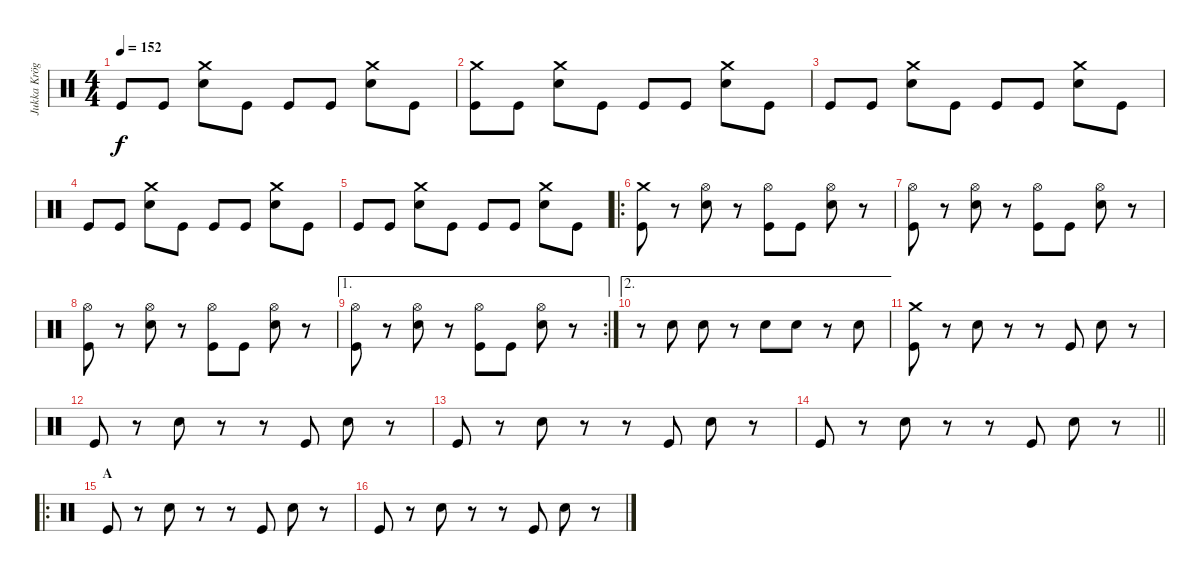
\track ("Jukka Kröger" "Jukka Krög") {instrument percussion}
\staff {score}
\articulation defaults
\ts (4 4)
\tempo 152
\clef neutral
\ks aminor "Kick (hit)".8{dy f} "Kick (hit)".8
("Crash medium (hit)" "Snare (hit) 2").8 "Kick (hit)".8 "Kick (hit)".8 "Kick (hit)".8 ("Crash medium (hit)" "Snare (hit) 2").8 "Kick (hit)".8 |
("Crash medium (hit)" "Kick (hit)").8 "Kick (hit)".8 ("Crash medium (hit)" "Snare (hit) 2").8 "Kick (hit)".8 "Kick (hit)".8 "Kick (hit)".8 ("Crash medium (hit)" "Snare (hit) 2").8 "Kick (hit)".8 |
"Kick (hit)".8 "Kick (hit)".8 ("Crash medium (hit)" "Snare (hit) 2").8 "Kick (hit)".8 "Kick (hit)".8 "Kick (hit)".8 ("Crash medium (hit)" "Snare (hit) 2").8 "Kick (hit)".8 |
"Kick (hit)".8 "Kick (hit)".8 ("Crash medium (hit)" "Snare (hit) 2").8 "Kick (hit)".8 "Kick (hit)".8 "Kick (hit)".8 ("Crash medium (hit)" "Snare (hit) 2").8 "Kick (hit)".8 |
"Kick (hit)".8 "Kick (hit)".8 ("Crash medium (hit)" "Snare (hit) 2").8 "Kick (hit)".8 "Kick (hit)".8 "Kick (hit)".8 ("Crash medium (hit)" "Snare (hit) 2").8 "Kick (hit)".8 |
\ro
("Crash medium (hit)" "Kick (hit)").8 r.8 ("Hi-Hat (open)" "Snare (hit) 2").8 r.8 ("Hi-Hat (open)" "Kick (hit)").8 "Kick (hit)".8 ("Hi-Hat (open)" "Snare (hit) 2").8 r.8 |
("Hi-Hat (open)" "Kick (hit)").8 r.8 ("Hi-Hat (open)" "Snare (hit) 2").8 r.8 ("Hi-Hat (open)" "Kick (hit)").8 "Kick (hit)".8 ("Hi-Hat (open)" "Snare (hit) 2").8 r.8 |
("Hi-Hat (open)" "Kick (hit)").8 r.8 ("Hi-Hat (open)" "Snare (hit) 2").8 r.8 ("Hi-Hat (open)" "Kick (hit)").8 "Kick (hit)".8 ("Hi-Hat (open)" "Snare (hit) 2").8 r.8 |
\ae 1
\rc 2
("Hi-Hat (open)" "Kick (hit)").8 r.8 ("Hi-Hat (open)" "Snare (hit) 2").8 r.8 ("Hi-Hat (open)" "Kick (hit)").8 "Kick (hit)".8 ("Hi-Hat (open)" "Snare (hit) 2").8 r.8 |
\ae 2
r.8 "Snare (hit) 2".8 "Snare (hit) 2".8 r.8 "Snare (hit) 2".8 "Snare (hit) 2".8 r.8 "Snare (hit) 2".8 |
("Crash medium (hit)" "Kick (hit)").8 r.8 "Snare (hit) 2".8 r.8 r.8 "Kick (hit)".8 "Snare (hit) 2".8 r.8 |
"Kick (hit)".8 r.8 "Snare (hit) 2".8 r.8 r.8 "Kick (hit)".8 "Snare (hit) 2".8 r.8 |
"Kick (hit)".8 r.8 "Snare (hit) 2".8 r.8 r.8 "Kick (hit)".8 "Snare (hit) 2".8 r.8 |
\barLineRight lightlight "Kick (hit)".8
r.8 "Snare (hit) 2".8 r.8 r.8 "Kick (hit)".8 "Snare (hit) 2".8 r.8 |
\ro
\section ("" "A")
"Kick (hit)".8 r.8 "Snare (hit) 2".8 r.8 r.8 "Kick (hit)".8 "Snare (hit) 2".8 r.8 |
"Kick (hit)".8 r.8 "Snare (hit) 2".8 r.8 r.8 "Kick (hit)".8 "Snare (hit) 2".8 r.8
